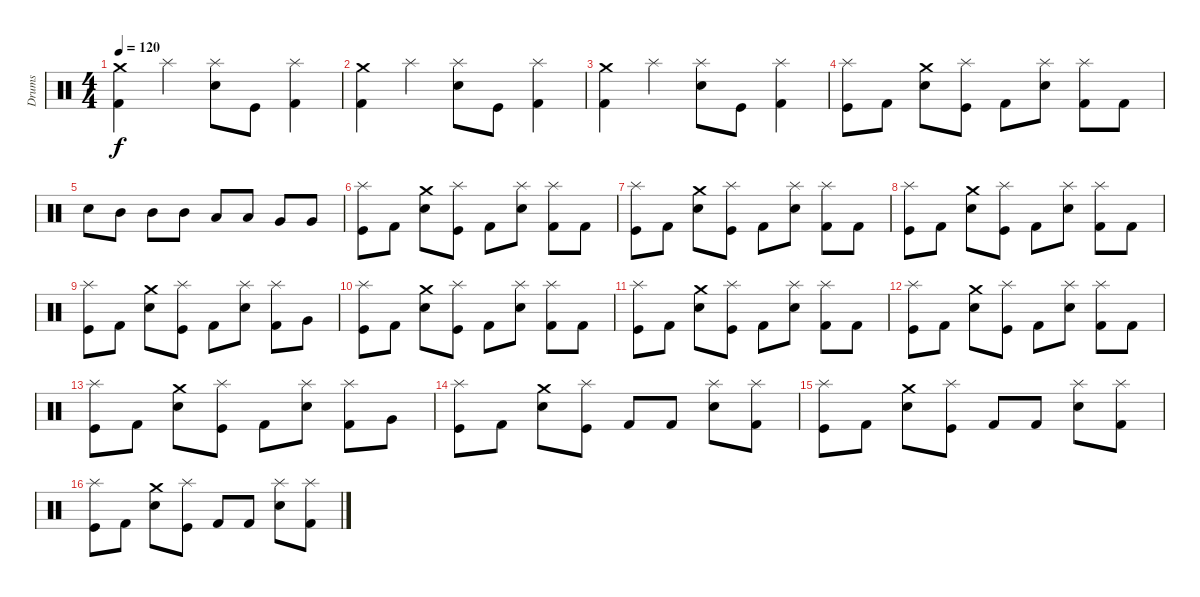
\track ("Drums" "Drums") {instrument percussion}
\staff {score}
\articulation defaults
\ts (4 4)
\tempo 120
\clef neutral
\ks c
("Crash medium (hit)" "Kick (hit) 2").4{dy f} "Splash (hit)".4 ("Splash (hit)" "Snare (hit) 2").8 "Kick (hit)".8 ("Splash (hit)" "Kick (hit) 2").4 |
("Crash medium (hit)" "Kick (hit) 2").4 "Splash (hit)".4 ("Splash (hit)" "Snare (hit) 2").8 "Kick (hit)".8 ("Splash (hit)" "Kick (hit) 2").4 |
("Crash medium (hit)" "Kick (hit) 2").4 "Splash (hit)".4 ("Splash (hit)" "Snare (hit) 2").8 "Kick (hit)".8 ("Splash (hit)" "Kick (hit) 2").4 |
("Splash (hit)" "Kick (hit)").8 "Kick (hit) 2".8 ("Crash medium (hit)" "Snare (hit) 2").8 ("Splash (hit)" "Kick (hit)").8 "Kick (hit) 2".8 ("Splash (hit)" "Snare (hit) 2").8 ("Splash (hit)" "Kick (hit) 2").8 "Kick (hit) 2".8 |
"Snare (hit) 2".8 "Mid Tom (hit)".8 "Mid Tom (hit)".8 "Mid Tom (hit)".8 "Low Tom (hit)".8 "Low Tom (hit)".8 "Very Low Tom (hit)".8 "Very Low Tom (hit)".8 |
("Splash (hit)" "Kick (hit)").8 "Kick (hit) 2".8 ("Crash medium (hit)" "Snare (hit) 2").8 ("Splash (hit)" "Kick (hit)").8 "Kick (hit) 2".8 ("Splash (hit)" "Snare (hit) 2").8 ("Splash (hit)" "Kick (hit) 2").8 "Kick (hit) 2".8 |
("Splash (hit)" "Kick (hit)").8 "Kick (hit) 2".8 ("Crash medium (hit)" "Snare (hit) 2").8 ("Splash (hit)" "Kick (hit)").8 "Kick (hit) 2".8 ("Splash (hit)" "Snare (hit) 2").8 ("Splash (hit)" "Kick (hit) 2").8 "Kick (hit) 2".8 |
("Splash (hit)" "Kick (hit)").8 "Kick (hit) 2".8 ("Crash medium (hit)" "Snare (hit) 2").8 ("Splash (hit)" "Kick (hit)").8 "Kick (hit) 2".8 ("Splash (hit)" "Snare (hit) 2").8 ("Splash (hit)" "Kick (hit) 2").8 "Kick (hit) 2".8 |
("Splash (hit)" "Kick (hit)").8 "Kick (hit) 2".8 ("Crash medium (hit)" "Snare (hit) 2").8 ("Splash (hit)" "Kick (hit)").8 "Kick (hit) 2".8 ("Splash (hit)" "Snare (hit) 2").8 ("Splash (hit)" "Kick (hit) 2").8 "Very Low Tom (hit)".8 |
("Splash (hit)" "Kick (hit)").8 "Kick (hit) 2".8 ("Crash medium (hit)" "Snare (hit) 2").8 ("Splash (hit)" "Kick (hit)").8 "Kick (hit) 2".8 ("Splash (hit)" "Snare (hit) 2").8 ("Splash (hit)" "Kick (hit) 2").8 "Kick (hit) 2".8 |
("Splash (hit)" "Kick (hit)").8 "Kick (hit) 2".8 ("Crash medium (hit)" "Snare (hit) 2").8 ("Splash (hit)" "Kick (hit)").8 "Kick (hit) 2".8 ("Splash (hit)" "Snare (hit) 2").8 ("Splash (hit)" "Kick (hit) 2").8 "Kick (hit) 2".8 |
("Splash (hit)" "Kick (hit)").8 "Kick (hit) 2".8 ("Crash medium (hit)" "Snare (hit) 2").8 ("Splash (hit)" "Kick (hit)").8 "Kick (hit) 2".8 ("Splash (hit)" "Snare (hit) 2").8 ("Splash (hit)" "Kick (hit) 2").8 "Kick (hit) 2".8 |
("Splash (hit)" "Kick (hit)").8 "Kick (hit) 2".8 ("Crash medium (hit)" "Snare (hit) 2").8 ("Splash (hit)" "Kick (hit)").8 "Kick (hit) 2".8 ("Splash (hit)" "Snare (hit) 2").8 ("Splash (hit)" "Kick (hit) 2").8 "Very Low Tom (hit)".8 |
("Splash (hit)" "Kick (hit)").8 "Kick (hit) 2".8 ("Crash medium (hit)" "Snare (hit) 2").8 ("Splash (hit)" "Kick (hit)").8 "Kick (hit) 2".8 "Kick (hit) 2".8 ("Splash (hit)" "Snare (hit) 2").8 ("Splash (hit)" "Kick (hit) 2").8 |
("Splash (hit)" "Kick (hit)").8 "Kick (hit) 2".8 ("Crash medium (hit)" "Snare (hit) 2").8 ("Splash (hit)" "Kick (hit)").8 "Kick (hit) 2".8 "Kick (hit) 2".8 ("Splash (hit)" "Snare (hit) 2").8 ("Splash (hit)" "Kick (hit) 2").8 |
("Splash (hit)" "Kick (hit)").8 "Kick (hit) 2".8 ("Crash medium (hit)" "Snare (hit) 2").8 ("Splash (hit)" "Kick (hit)").8 "Kick (hit) 2".8 "Kick (hit) 2".8 ("Splash (hit)" "Snare (hit) 2").8 ("Splash (hit)" "Kick (hit) 2").8
